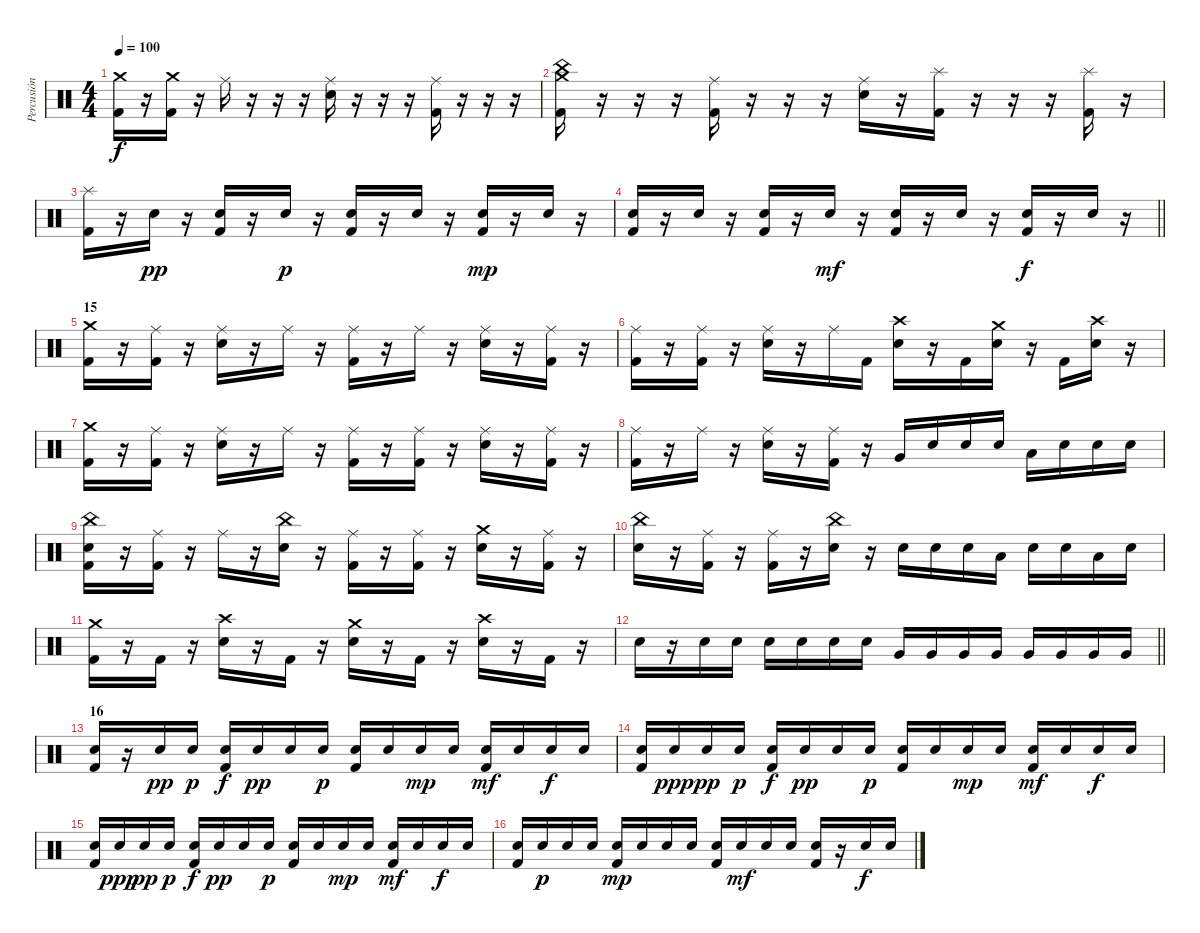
\track ("Percusión" "Percusión") {instrument percussion}
\staff {score}
\articulation defaults
\ts (4 4)
\tempo 100
\clef neutral
\ks c
("Crash medium (hit)" "Kick (hit) 2").16{dy f} r.16 ("Crash medium (hit)" "Kick (hit) 2").16 r.16 "Ride (middle)".16 r.16 r.16 r.16 ("Ride (middle)" "Electric Snare (hit)").16 r.16 r.16 r.16 ("Ride (middle)" "Kick (hit) 2").16 r.16 r.16 r.16 |
("Crash medium (hit)" "China (hit)" "Kick (hit) 2").16 r.16 r.16 r.16 ("Ride (middle)" "Kick (hit) 2").16 r.16 r.16 r.16 ("Ride (middle)" "Electric Snare (hit)").16 r.16 ("Splash (hit)" "Kick (hit) 2").16 r.16 r.16 r.16 ("Splash (hit)" "Kick (hit) 2").16 r.16 |
("Splash (hit)" "Kick (hit) 2").16 r.16 "Electric Snare (hit)".16{dy pp} r.16 ("Electric Snare (hit)" "Kick (hit) 2").16 r.16 "Electric Snare (hit)".16{dy p} r.16 ("Electric Snare (hit)" "Kick (hit) 2").16 r.16 "Electric Snare (hit)".16 r.16 ("Electric Snare (hit)" "Kick (hit) 2").16{dy mp} r.16 "Electric Snare (hit)".16 r.16 |
\barLineRight lightlight
("Electric Snare (hit)" "Kick (hit) 2").16 r.16 "Electric Snare (hit)".16 r.16 ("Electric Snare (hit)" "Kick (hit) 2").16 r.16 "Electric Snare (hit)".16{dy mf} r.16 ("Electric Snare (hit)" "Kick (hit) 2").16 r.16 "Electric Snare (hit)".16 r.16 ("Electric Snare (hit)" "Kick (hit) 2").16{dy f} r.16 "Electric Snare (hit)".16 r.16 |
\section ("" "15")
("Crash medium (hit)" "Kick (hit) 2").16 r.16 ("Ride (middle)" "Kick (hit) 2").16 r.16 ("Ride (middle)" "Electric Snare (hit)").16 r.16 "Ride (middle)".16 r.16 ("Ride (middle)" "Kick (hit) 2").16 r.16 "Ride (middle)".16 r.16 ("Ride (middle)" "Electric Snare (hit)").16 r.16 ("Ride (middle)" "Kick (hit) 2").16 r.16 |
("Ride (middle)" "Kick (hit) 2").16 r.16 ("Ride (middle)" "Kick (hit) 2").16 r.16 ("Ride (middle)" "Electric Snare (hit)").16 r.16 "Ride (middle)".16 "Kick (hit) 2".16 ("Crash high (hit)" "Electric Snare (hit)").16 r.16 "Kick (hit) 2".16 ("Crash medium (hit)" "Electric Snare (hit)").16 r.16 "Kick (hit) 2".16 ("Crash high (hit)" "Electric Snare (hit)").16 r.16 |
("Crash medium (hit)" "Kick (hit) 2").16 r.16 ("Ride (middle)" "Kick (hit) 2").16 r.16 ("Ride (middle)" "Electric Snare (hit)").16 r.16 "Ride (middle)".16 r.16 ("Ride (middle)" "Kick (hit) 2").16 r.16 ("Ride (middle)" "Kick (hit) 2").16 r.16 ("Ride (middle)" "Electric Snare (hit)").16 r.16 ("Ride (middle)" "Kick (hit) 2").16 r.16 |
("Ride (middle)" "Kick (hit) 2").16 r.16 "Ride (middle)".16 r.16 ("Ride (middle)" "Electric Snare (hit)").16 r.16 ("Ride (middle)" "Kick (hit) 2").16 r.16 "Very Low Tom (hit)".16 "Electric Snare (hit)".16 "Electric Snare (hit)".16 "Electric Snare (hit)".16 "Low Floor Tom (hit)".16 "Electric Snare (hit)".16 "Electric Snare (hit)".16 "Electric Snare (hit)".16 |
("China (hit)" "Electric Snare (hit)" "Kick (hit) 2").16 r.16 ("Ride (middle)" "Kick (hit) 2").16 r.16 "Ride (middle)".16 r.16 ("China (hit)" "Electric Snare (hit)").16 r.16 ("Ride (middle)" "Kick (hit) 2").16 r.16 ("Ride (middle)" "Kick (hit) 2").16 r.16 ("Crash medium (hit)" "Electric Snare (hit)").16 r.16 ("Ride (middle)" "Kick (hit) 2").16 r.16 |
("China (hit)" "Electric Snare (hit)").16 r.16 ("Ride (middle)" "Kick (hit) 2").16 r.16 ("Ride (middle)" "Kick (hit) 2").16 r.16 ("China (hit)" "Electric Snare (hit)").16 r.16 "Electric Snare (hit)".16 "Electric Snare (hit)".16 "Electric Snare (hit)".16 "Low Floor Tom (hit)".16 "Electric Snare (hit)".16 "Electric Snare (hit)".16 "Low Floor Tom (hit)".16 "Electric Snare (hit)".16 |
("Crash medium (hit)" "Kick (hit) 2").16 r.16 "Kick (hit) 2".16 r.16 ("Crash high (hit)" "Electric Snare (hit)").16 r.16 "Kick (hit) 2".16 r.16 ("Crash medium (hit)" "Electric Snare (hit)").16 r.16 "Kick (hit) 2".16 r.16 ("Crash high (hit)" "Electric Snare (hit)").16 r.16 "Kick (hit) 2".16 r.16 |
\barLineRight lightlight "Electric Snare (hit)".16
r.16 "Electric Snare (hit)".16 "Electric Snare (hit)".16 "Electric Snare (hit)".16 "Electric Snare (hit)".16 "Electric Snare (hit)".16 "Electric Snare (hit)".16 "Very Low Tom (hit)".16 "Very Low Tom (hit)".16 "Very Low Tom (hit)".16 "Very Low Tom (hit)".16 "Very Low Tom (hit)".16 "Very Low Tom (hit)".16 "Very Low Tom (hit)".16 "Very Low Tom (hit)".16 |
\section ("" "16")
("Electric Snare (hit)" "Kick (hit) 2").16 r.16 "Electric Snare (hit)".16{dy pp} "Electric Snare (hit)".16{dy p} ("Electric Snare (hit)" "Kick (hit) 2").16{dy f} "Electric Snare (hit)".16{dy pp} "Electric Snare (hit)".16 "Electric Snare (hit)".16{dy p} ("Electric Snare (hit)" "Kick (hit) 2").16 "Electric Snare (hit)".16 "Electric Snare (hit)".16{dy mp} "Electric Snare (hit)".16 ("Electric Snare (hit)" "Kick (hit) 2").16{dy mf} "Electric Snare (hit)".16 "Electric Snare (hit)".16{dy f} "Electric Snare (hit)".16 |
("Electric Snare (hit)" "Kick (hit) 2").16 "Electric Snare (hit)".16{dy ppp} "Electric Snare (hit)".16{dy pp} "Electric Snare (hit)".16{dy p} ("Electric Snare (hit)" "Kick (hit) 2").16{dy f} "Electric Snare (hit)".16{dy pp} "Electric Snare (hit)".16 "Electric Snare (hit)".16{dy p} ("Electric Snare (hit)" "Kick (hit) 2").16 "Electric Snare (hit)".16 "Electric Snare (hit)".16{dy mp} "Electric Snare (hit)".16 ("Electric Snare (hit)" "Kick (hit) 2").16{dy mf} "Electric Snare (hit)".16 "Electric Snare (hit)".16{dy f} "Electric Snare (hit)".16 |
("Electric Snare (hit)" "Kick (hit) 2").16 "Electric Snare (hit)".16{dy ppp} "Electric Snare (hit)".16{dy pp} "Electric Snare (hit)".16{dy p} ("Electric Snare (hit)" "Kick (hit) 2").16{dy f} "Electric Snare (hit)".16{dy pp} "Electric Snare (hit)".16 "Electric Snare (hit)".16{dy p} ("Electric Snare (hit)" "Kick (hit) 2").16 "Electric Snare (hit)".16 "Electric Snare (hit)".16{dy mp} "Electric Snare (hit)".16 ("Electric Snare (hit)" "Kick (hit) 2").16{dy mf} "Electric Snare (hit)".16 "Electric Snare (hit)".16{dy f} "Electric Snare (hit)".16 |
("Electric Snare (hit)" "Kick (hit) 2").16 "Electric Snare (hit)".16{dy p} "Electric Snare (hit)".16 "Electric Snare (hit)".16 ("Electric Snare (hit)" "Kick (hit) 2").16{dy mp} "Electric Snare (hit)".16 "Electric Snare (hit)".16 "Electric Snare (hit)".16 ("Electric Snare (hit)" "Kick (hit) 2").16 "Electric Snare (hit)".16{dy mf} "Electric Snare (hit)".16 "Electric Snare (hit)".16 ("Electric Snare (hit)" "Kick (hit) 2").16 r.16 "Electric Snare (hit)".16{dy f} "Electric Snare (hit)".16
